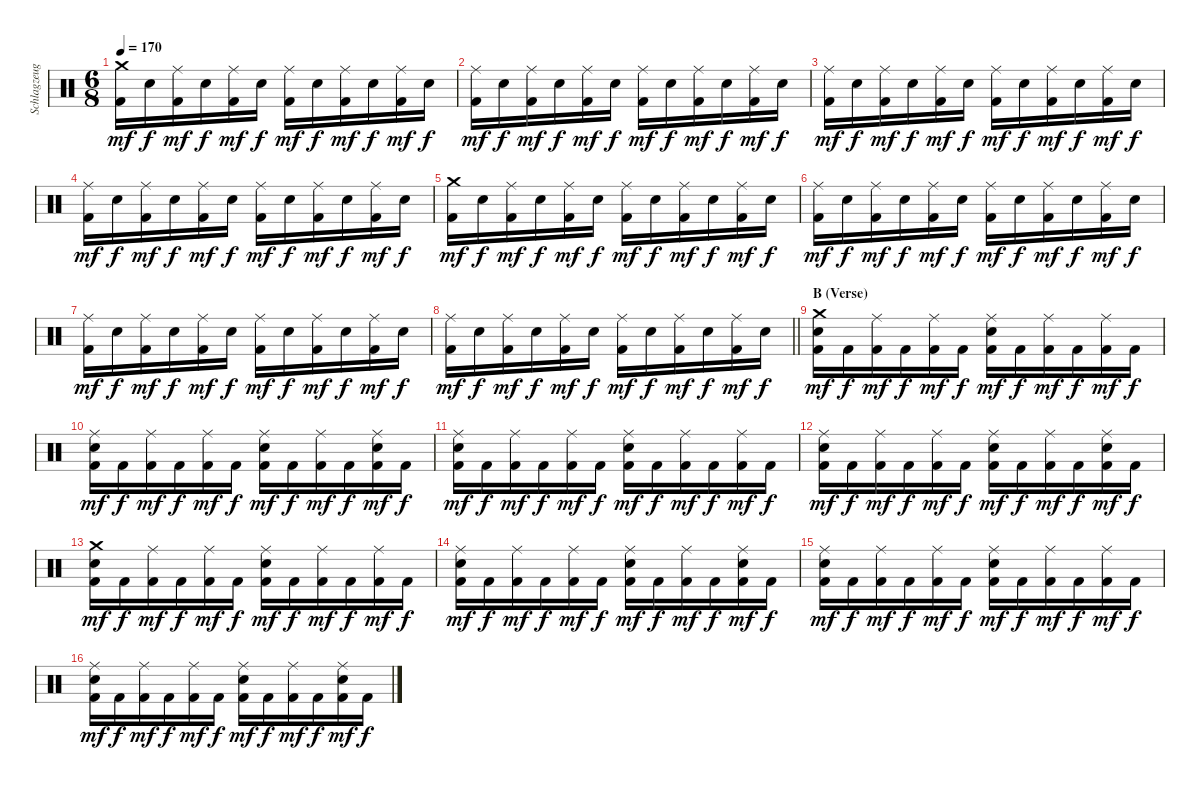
\track ("Schlagzeug" "Schlagzeug") {instrument percussion}
\staff {score}
\articulation defaults
\ts (6 8)
\tempo 170
\clef neutral
\ks c
("Crash medium (hit)" "Kick (hit) 2").16{dy mf} "Electric Snare (hit)".16{dy f} ("Ride (middle)" "Kick (hit) 2").16{dy mf} "Electric Snare (hit)".16{dy f} ("Ride (middle)" "Kick (hit) 2").16{dy mf} "Electric Snare (hit)".16{dy f} ("Ride (middle)" "Kick (hit) 2").16{dy mf} "Electric Snare (hit)".16{dy f} ("Ride (middle)" "Kick (hit) 2").16{dy mf} "Electric Snare (hit)".16{dy f} ("Ride (middle)" "Kick (hit) 2").16{dy mf} "Electric Snare (hit)".16{dy f} |
("Ride (middle)" "Kick (hit) 2").16{dy mf} "Electric Snare (hit)".16{dy f} ("Ride (middle)" "Kick (hit) 2").16{dy mf} "Electric Snare (hit)".16{dy f} ("Ride (middle)" "Kick (hit) 2").16{dy mf} "Electric Snare (hit)".16{dy f} ("Ride (middle)" "Kick (hit) 2").16{dy mf} "Electric Snare (hit)".16{dy f} ("Ride (middle)" "Kick (hit) 2").16{dy mf} "Electric Snare (hit)".16{dy f} ("Ride (middle)" "Kick (hit) 2").16{dy mf} "Electric Snare (hit)".16{dy f} |
("Ride (middle)" "Kick (hit) 2").16{dy mf} "Electric Snare (hit)".16{dy f} ("Ride (middle)" "Kick (hit) 2").16{dy mf} "Electric Snare (hit)".16{dy f} ("Ride (middle)" "Kick (hit) 2").16{dy mf} "Electric Snare (hit)".16{dy f} ("Ride (middle)" "Kick (hit) 2").16{dy mf} "Electric Snare (hit)".16{dy f} ("Ride (middle)" "Kick (hit) 2").16{dy mf} "Electric Snare (hit)".16{dy f} ("Ride (middle)" "Kick (hit) 2").16{dy mf} "Electric Snare (hit)".16{dy f} |
("Ride (middle)" "Kick (hit) 2").16{dy mf} "Electric Snare (hit)".16{dy f} ("Ride (middle)" "Kick (hit) 2").16{dy mf} "Electric Snare (hit)".16{dy f} ("Ride (middle)" "Kick (hit) 2").16{dy mf} "Electric Snare (hit)".16{dy f} ("Ride (middle)" "Kick (hit) 2").16{dy mf} "Electric Snare (hit)".16{dy f} ("Ride (middle)" "Kick (hit) 2").16{dy mf} "Electric Snare (hit)".16{dy f} ("Ride (middle)" "Kick (hit) 2").16{dy mf} "Electric Snare (hit)".16{dy f} |
("Crash medium (hit)" "Kick (hit) 2").16{dy mf} "Electric Snare (hit)".16{dy f} ("Ride (middle)" "Kick (hit) 2").16{dy mf} "Electric Snare (hit)".16{dy f} ("Ride (middle)" "Kick (hit) 2").16{dy mf} "Electric Snare (hit)".16{dy f} ("Ride (middle)" "Kick (hit) 2").16{dy mf} "Electric Snare (hit)".16{dy f} ("Ride (middle)" "Kick (hit) 2").16{dy mf} "Electric Snare (hit)".16{dy f} ("Ride (middle)" "Kick (hit) 2").16{dy mf} "Electric Snare (hit)".16{dy f} |
("Ride (middle)" "Kick (hit) 2").16{dy mf} "Electric Snare (hit)".16{dy f} ("Ride (middle)" "Kick (hit) 2").16{dy mf} "Electric Snare (hit)".16{dy f} ("Ride (middle)" "Kick (hit) 2").16{dy mf} "Electric Snare (hit)".16{dy f} ("Ride (middle)" "Kick (hit) 2").16{dy mf} "Electric Snare (hit)".16{dy f} ("Ride (middle)" "Kick (hit) 2").16{dy mf} "Electric Snare (hit)".16{dy f} ("Ride (middle)" "Kick (hit) 2").16{dy mf} "Electric Snare (hit)".16{dy f} |
("Ride (middle)" "Kick (hit) 2").16{dy mf} "Electric Snare (hit)".16{dy f} ("Ride (middle)" "Kick (hit) 2").16{dy mf} "Electric Snare (hit)".16{dy f} ("Ride (middle)" "Kick (hit) 2").16{dy mf} "Electric Snare (hit)".16{dy f} ("Ride (middle)" "Kick (hit) 2").16{dy mf} "Electric Snare (hit)".16{dy f} ("Ride (middle)" "Kick (hit) 2").16{dy mf} "Electric Snare (hit)".16{dy f} ("Ride (middle)" "Kick (hit) 2").16{dy mf} "Electric Snare (hit)".16{dy f} |
\barLineRight lightlight
("Ride (middle)" "Kick (hit) 2").16{dy mf} "Electric Snare (hit)".16{dy f} ("Ride (middle)" "Kick (hit) 2").16{dy mf} "Electric Snare (hit)".16{dy f} ("Ride (middle)" "Kick (hit) 2").16{dy mf} "Electric Snare (hit)".16{dy f} ("Ride (middle)" "Kick (hit) 2").16{dy mf} "Electric Snare (hit)".16{dy f} ("Ride (middle)" "Kick (hit) 2").16{dy mf} "Electric Snare (hit)".16{dy f} ("Ride (middle)" "Kick (hit) 2").16{dy mf} "Electric Snare (hit)".16{dy f} |
\section ("" "B (Verse)")
("Crash medium (hit)" "Electric Snare (hit)" "Kick (hit) 2").16{dy mf} "Kick (hit) 2".16{dy f} ("Ride (middle)" "Kick (hit) 2").16{dy mf} "Kick (hit) 2".16{dy f} ("Ride (middle)" "Kick (hit) 2").16{dy mf} "Kick (hit) 2".16{dy f} ("Ride (middle)" "Electric Snare (hit)" "Kick (hit) 2").16{dy mf} "Kick (hit) 2".16{dy f} ("Ride (middle)" "Kick (hit) 2").16{dy mf} "Kick (hit) 2".16{dy f} ("Ride (middle)" "Kick (hit) 2").16{dy mf} "Kick (hit) 2".16{dy f} |
("Ride (middle)" "Electric Snare (hit)" "Kick (hit) 2").16{dy mf} "Kick (hit) 2".16{dy f} ("Ride (middle)" "Kick (hit) 2").16{dy mf} "Kick (hit) 2".16{dy f} ("Ride (middle)" "Kick (hit) 2").16{dy mf} "Kick (hit) 2".16{dy f} ("Ride (middle)" "Electric Snare (hit)" "Kick (hit) 2").16{dy mf} "Kick (hit) 2".16{dy f} ("Ride (middle)" "Kick (hit) 2").16{dy mf} "Kick (hit) 2".16{dy f} ("Ride (middle)" "Electric Snare (hit)" "Kick (hit) 2").16{dy mf} "Kick (hit) 2".16{dy f} |
("Ride (middle)" "Electric Snare (hit)" "Kick (hit) 2").16{dy mf} "Kick (hit) 2".16{dy f} ("Ride (middle)" "Kick (hit) 2").16{dy mf} "Kick (hit) 2".16{dy f} ("Ride (middle)" "Kick (hit) 2").16{dy mf} "Kick (hit) 2".16{dy f} ("Ride (middle)" "Electric Snare (hit)" "Kick (hit) 2").16{dy mf} "Kick (hit) 2".16{dy f} ("Ride (middle)" "Kick (hit) 2").16{dy mf} "Kick (hit) 2".16{dy f} ("Ride (middle)" "Kick (hit) 2").16{dy mf} "Kick (hit) 2".16{dy f} |
("Ride (middle)" "Electric Snare (hit)" "Kick (hit) 2").16{dy mf} "Kick (hit) 2".16{dy f} ("Ride (middle)" "Kick (hit) 2").16{dy mf} "Kick (hit) 2".16{dy f} ("Ride (middle)" "Kick (hit) 2").16{dy mf} "Kick (hit) 2".16{dy f} ("Ride (middle)" "Electric Snare (hit)" "Kick (hit) 2").16{dy mf} "Kick (hit) 2".16{dy f} ("Ride (middle)" "Kick (hit) 2").16{dy mf} "Kick (hit) 2".16{dy f} ("Ride (middle)" "Electric Snare (hit)" "Kick (hit) 2").16{dy mf} "Kick (hit) 2".16{dy f} |
("Crash medium (hit)" "Electric Snare (hit)" "Kick (hit) 2").16{dy mf} "Kick (hit) 2".16{dy f} ("Ride (middle)" "Kick (hit) 2").16{dy mf} "Kick (hit) 2".16{dy f} ("Ride (middle)" "Kick (hit) 2").16{dy mf} "Kick (hit) 2".16{dy f} ("Ride (middle)" "Electric Snare (hit)" "Kick (hit) 2").16{dy mf} "Kick (hit) 2".16{dy f} ("Ride (middle)" "Kick (hit) 2").16{dy mf} "Kick (hit) 2".16{dy f} ("Ride (middle)" "Kick (hit) 2").16{dy mf} "Kick (hit) 2".16{dy f} |
("Ride (middle)" "Electric Snare (hit)" "Kick (hit) 2").16{dy mf} "Kick (hit) 2".16{dy f} ("Ride (middle)" "Kick (hit) 2").16{dy mf} "Kick (hit) 2".16{dy f} ("Ride (middle)" "Kick (hit) 2").16{dy mf} "Kick (hit) 2".16{dy f} ("Ride (middle)" "Electric Snare (hit)" "Kick (hit) 2").16{dy mf} "Kick (hit) 2".16{dy f} ("Ride (middle)" "Kick (hit) 2").16{dy mf} "Kick (hit) 2".16{dy f} ("Ride (middle)" "Electric Snare (hit)" "Kick (hit) 2").16{dy mf} "Kick (hit) 2".16{dy f} |
("Ride (middle)" "Electric Snare (hit)" "Kick (hit) 2").16{dy mf} "Kick (hit) 2".16{dy f} ("Ride (middle)" "Kick (hit) 2").16{dy mf} "Kick (hit) 2".16{dy f} ("Ride (middle)" "Kick (hit) 2").16{dy mf} "Kick (hit) 2".16{dy f} ("Ride (middle)" "Electric Snare (hit)" "Kick (hit) 2").16{dy mf} "Kick (hit) 2".16{dy f} ("Ride (middle)" "Kick (hit) 2").16{dy mf} "Kick (hit) 2".16{dy f} ("Ride (middle)" "Kick (hit) 2").16{dy mf} "Kick (hit) 2".16{dy f} |
("Ride (middle)" "Electric Snare (hit)" "Kick (hit) 2").16{dy mf} "Kick (hit) 2".16{dy f} ("Ride (middle)" "Kick (hit) 2").16{dy mf} "Kick (hit) 2".16{dy f} ("Ride (middle)" "Kick (hit) 2").16{dy mf} "Kick (hit) 2".16{dy f} ("Ride (middle)" "Electric Snare (hit)" "Kick (hit) 2").16{dy mf} "Kick (hit) 2".16{dy f} ("Ride (middle)" "Kick (hit) 2").16{dy mf} "Kick (hit) 2".16{dy f} ("Ride (middle)" "Electric Snare (hit)" "Kick (hit) 2").16{dy mf} "Kick (hit) 2".16{dy f}
